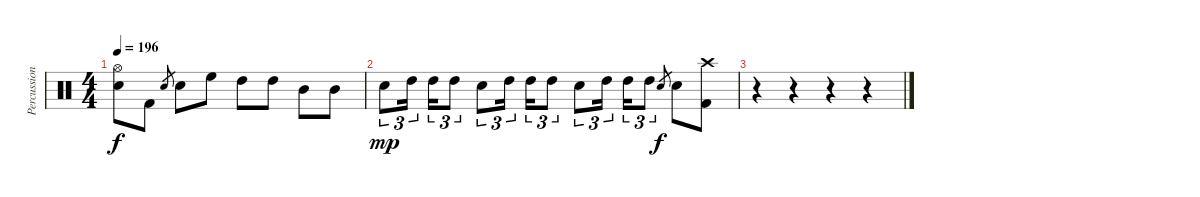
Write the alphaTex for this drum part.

\track ("Percussion" "Percussion") {instrument percussion}
\staff {score}
\articulation defaults
\ts (4 4)
\tempo 196
\clef neutral
\ks c
("Hi-Hat (open)"{t} "Snare (hit)"{t}).8{dy f} "Kick (hit) 2".8 "Snare (hit) 2".8{gr} "Snare (hit) 2".8 "High Floor Tom (hit)".8 "High Tom (hit)".8 "High Tom (hit)".8 "Mid Tom (hit)".8 "Mid Tom (hit)".8 |
"Snare (hit) 2".8{tu (3 2) dy mp} "High Tom (hit)".16{tu (3 2)} "High Tom (hit)".16{tu (3 2)} "High Tom (hit)".8{tu (3 2)} "Snare (hit) 2".8{tu (3 2)} "High Tom (hit)".16{tu (3 2)} "High Tom (hit)".16{tu (3 2)} "High Tom (hit)".8{tu (3 2)} "Snare (hit) 2".8{tu (3 2)} "High Tom (hit)".16{tu (3 2)} "High Tom (hit)".16{tu (3 2)} "High Tom (hit)".8{tu (3 2)} "Snare (hit) 2".8{gr dy f} "Snare (hit) 2".8 ("Crash high (hit)" "Kick (hit) 2").8 |
r.4 r.4 r.4 r.4
